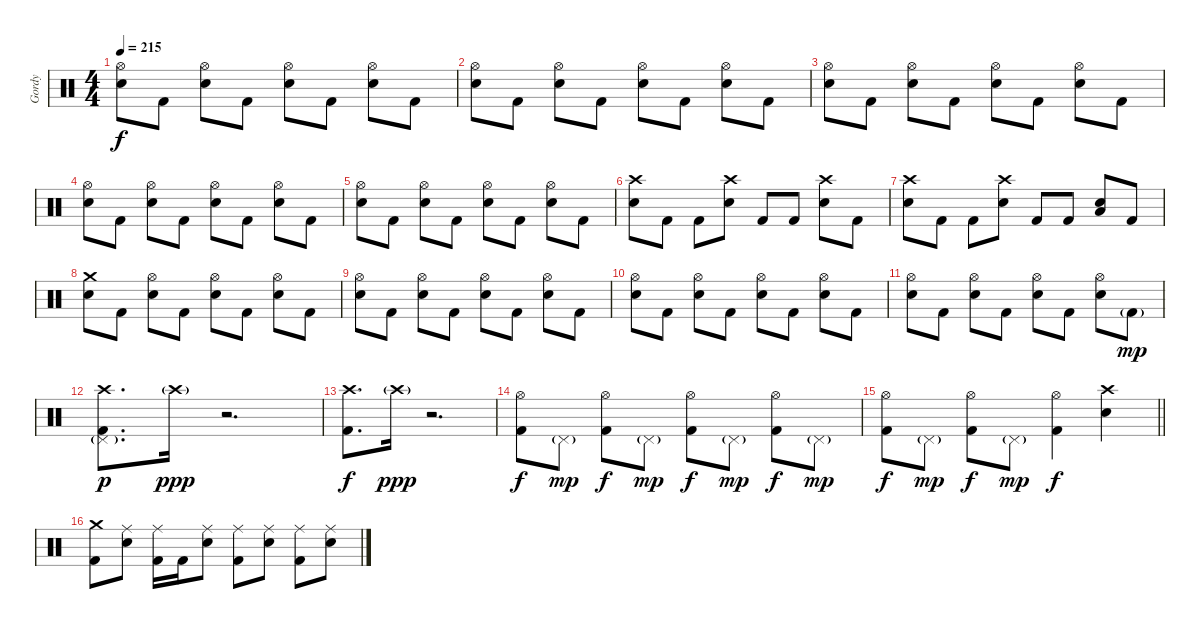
\track ("Gordy" "Gordy") {instrument percussion}
\staff {score}
\articulation defaults
\ts (4 4)
\tempo 215
\clef neutral
\ks c
("Hi-Hat (open)" "Electric Snare (hit)").8{dy f} "Kick (hit) 2".8 ("Hi-Hat (open)" "Electric Snare (hit)").8 "Kick (hit) 2".8 ("Hi-Hat (open)" "Electric Snare (hit)").8 "Kick (hit) 2".8 ("Hi-Hat (open)" "Electric Snare (hit)").8 "Kick (hit) 2".8 |
("Hi-Hat (open)" "Electric Snare (hit)").8 "Kick (hit) 2".8 ("Hi-Hat (open)" "Electric Snare (hit)").8 "Kick (hit) 2".8 ("Hi-Hat (open)" "Electric Snare (hit)").8 "Kick (hit) 2".8 ("Hi-Hat (open)" "Electric Snare (hit)").8 "Kick (hit) 2".8 |
("Hi-Hat (open)" "Electric Snare (hit)").8 "Kick (hit) 2".8 ("Hi-Hat (open)" "Electric Snare (hit)").8 "Kick (hit) 2".8 ("Hi-Hat (open)" "Electric Snare (hit)").8 "Kick (hit) 2".8 ("Hi-Hat (open)" "Electric Snare (hit)").8 "Kick (hit) 2".8 |
("Hi-Hat (open)" "Electric Snare (hit)").8 "Kick (hit) 2".8 ("Hi-Hat (open)" "Electric Snare (hit)").8 "Kick (hit) 2".8 ("Hi-Hat (open)" "Electric Snare (hit)").8 "Kick (hit) 2".8 ("Hi-Hat (open)" "Electric Snare (hit)").8 "Kick (hit) 2".8 |
("Hi-Hat (open)" "Electric Snare (hit)").8 "Kick (hit) 2".8 ("Hi-Hat (open)" "Electric Snare (hit)").8 "Kick (hit) 2".8 ("Hi-Hat (open)" "Electric Snare (hit)").8 "Kick (hit) 2".8 ("Hi-Hat (open)" "Electric Snare (hit)").8 "Kick (hit) 2".8 |
("Crash high (hit)" "Electric Snare (hit)").8 "Kick (hit) 2".8 "Kick (hit) 2".8 ("Crash high (hit)" "Electric Snare (hit)").8 "Kick (hit) 2".8 "Kick (hit) 2".8 ("Crash high (hit)" "Electric Snare (hit)").8 "Kick (hit) 2".8 |
("Crash high (hit)" "Electric Snare (hit)").8 "Kick (hit) 2".8 "Kick (hit) 2".8 ("Crash high (hit)" "Electric Snare (hit)").8 "Kick (hit) 2".8 "Kick (hit) 2".8 ("Electric Snare (hit)" "Low Floor Tom (hit)").8 "Kick (hit) 2".8 |
("Crash medium (hit)" "Electric Snare (hit)").8 "Kick (hit) 2".8 ("Hi-Hat (open)" "Electric Snare (hit)").8 "Kick (hit) 2".8 ("Hi-Hat (open)" "Electric Snare (hit)").8 "Kick (hit) 2".8 ("Hi-Hat (open)" "Electric Snare (hit)").8 "Kick (hit) 2".8 |
("Hi-Hat (open)" "Electric Snare (hit)").8 "Kick (hit) 2".8 ("Hi-Hat (open)" "Electric Snare (hit)").8 "Kick (hit) 2".8 ("Hi-Hat (open)" "Electric Snare (hit)").8 "Kick (hit) 2".8 ("Hi-Hat (open)" "Electric Snare (hit)").8 "Kick (hit) 2".8 |
("Hi-Hat (open)" "Electric Snare (hit)").8 "Kick (hit) 2".8 ("Hi-Hat (open)" "Electric Snare (hit)").8 "Kick (hit) 2".8 ("Hi-Hat (open)" "Electric Snare (hit)").8 "Kick (hit) 2".8 ("Hi-Hat (open)" "Electric Snare (hit)").8 "Kick (hit) 2".8 |
("Hi-Hat (open)" "Electric Snare (hit)").8 "Kick (hit) 2".8 ("Hi-Hat (open)" "Electric Snare (hit)").8 "Kick (hit) 2".8 ("Hi-Hat (open)" "Electric Snare (hit)").8 "Kick (hit) 2".8 ("Hi-Hat (open)" "Electric Snare (hit)").8 "Kick (hit) 2"{g}.8{dy mp} |
("Pedal Hi-Hat (hit)"{g} "Crash high (hit)" "Kick (hit) 2").8{d dy p} "Crash high (hit)"{g}.16{dy ppp} r.2{d} |
("Crash high (hit)" "Kick (hit) 2").8{d dy f} "Crash high (hit)"{g}.16{dy ppp} r.2{d} |
("Hi-Hat (open)" "Kick (hit) 2").8{dy f} "Pedal Hi-Hat (hit)"{g}.8{dy mp} ("Hi-Hat (open)" "Kick (hit) 2").8{dy f} "Pedal Hi-Hat (hit)"{g}.8{dy mp} ("Hi-Hat (open)" "Kick (hit) 2").8{dy f} "Pedal Hi-Hat (hit)"{g}.8{dy mp} ("Hi-Hat (open)" "Kick (hit) 2").8{dy f} "Pedal Hi-Hat (hit)"{g}.8{dy mp} |
\barLineRight lightlight
("Hi-Hat (open)" "Kick (hit) 2").8{dy f} "Pedal Hi-Hat (hit)"{g}.8{dy mp} ("Hi-Hat (open)" "Kick (hit) 2").8{dy f} "Pedal Hi-Hat (hit)"{g}.8{dy mp} ("Hi-Hat (open)" "Kick (hit) 2").4{dy f} ("Crash high (hit)" "Electric Snare (hit)").4 |
\section ("" "")
("Crash medium (hit)" "Kick (hit) 2").8 ("Ride (middle)" "Electric Snare (hit)").8 ("Ride (middle)" "Kick (hit) 2").16 "Kick (hit) 2".16 ("Ride (middle)" "Electric Snare (hit)").8 ("Ride (middle)" "Kick (hit) 2").8 ("Ride (middle)" "Electric Snare (hit)").8 ("Ride (middle)" "Kick (hit) 2").8 ("Ride (middle)" "Electric Snare (hit)").8
